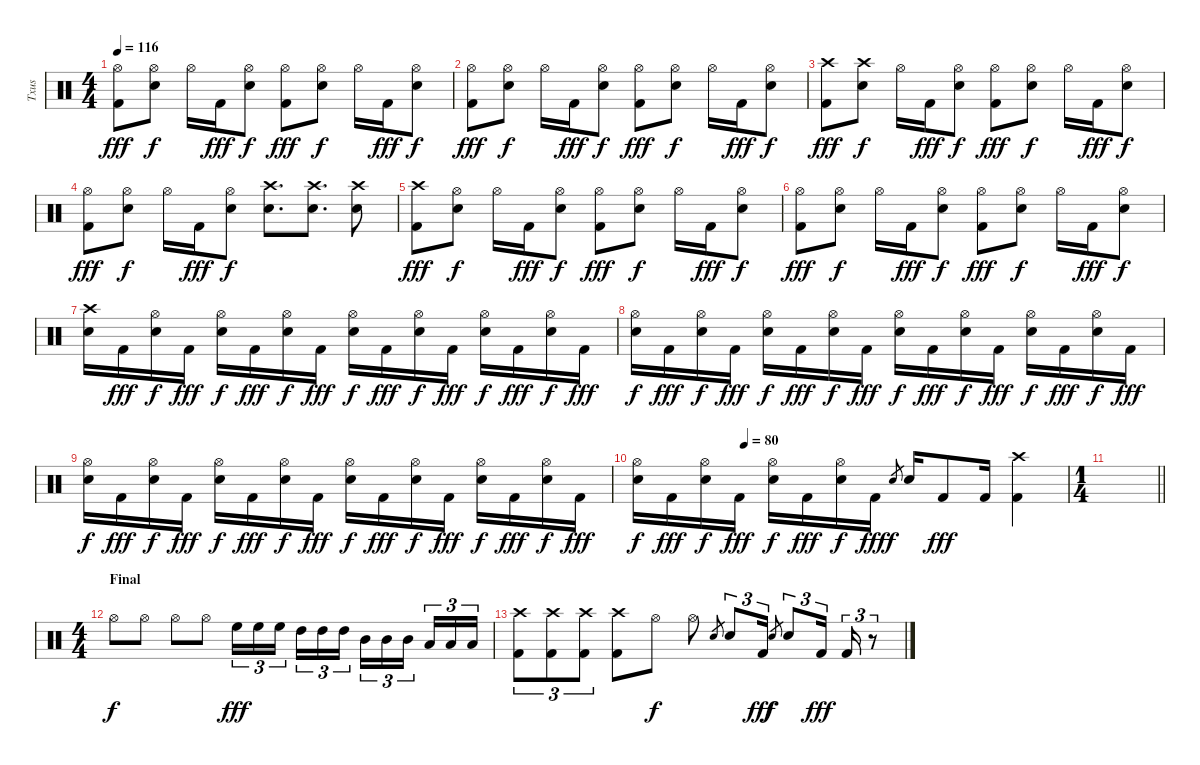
\track ("Txus" "Txus") {instrument percussion}
\staff {score}
\articulation defaults
\ts (4 4)
\tempo 116
\clef neutral
\ks c
("Kick (hit) 2" "Hi-Hat (open)").8{dy fff} ("Electric Snare (hit)" "Hi-Hat (open)").8{dy f} "Hi-Hat (open)".16 "Kick (hit) 2".16{dy fff} ("Electric Snare (hit)" "Hi-Hat (open)").8{dy f} ("Kick (hit) 2" "Hi-Hat (open)").8{dy fff} ("Electric Snare (hit)" "Hi-Hat (open)").8{dy f} "Hi-Hat (open)".16 "Kick (hit) 2".16{dy fff} ("Electric Snare (hit)" "Hi-Hat (open)").8{dy f} |
("Kick (hit) 2" "Hi-Hat (open)").8{dy fff} ("Electric Snare (hit)" "Hi-Hat (open)").8{dy f} "Hi-Hat (open)".16 "Kick (hit) 2".16{dy fff} ("Electric Snare (hit)" "Hi-Hat (open)").8{dy f} ("Kick (hit) 2" "Hi-Hat (open)").8{dy fff} ("Electric Snare (hit)" "Hi-Hat (open)").8{dy f} "Hi-Hat (open)".16 "Kick (hit) 2".16{dy fff} ("Electric Snare (hit)" "Hi-Hat (open)").8{dy f} |
("Kick (hit) 2" "Crash high (hit)").8{dy fff} ("Electric Snare (hit)" "Crash high (hit)").8{dy f} "Hi-Hat (open)".16 "Kick (hit) 2".16{dy fff} ("Electric Snare (hit)" "Hi-Hat (open)").8{dy f} ("Kick (hit) 2" "Hi-Hat (open)").8{dy fff} ("Electric Snare (hit)" "Hi-Hat (open)").8{dy f} "Hi-Hat (open)".16 "Kick (hit) 2".16{dy fff} ("Electric Snare (hit)" "Hi-Hat (open)").8{dy f} |
("Kick (hit) 2" "Hi-Hat (open)").8{dy fff} ("Electric Snare (hit)" "Hi-Hat (open)").8{dy f} "Hi-Hat (open)".16 "Kick (hit) 2".16{dy fff} ("Electric Snare (hit)" "Hi-Hat (open)").8{dy f} ("Electric Snare (hit)" "Crash high (hit)").8{d} ("Electric Snare (hit)" "Crash high (hit)").8{d} ("Electric Snare (hit)" "Crash high (hit)").8 |
("Kick (hit) 2" "Crash high (hit)").8{dy fff} ("Electric Snare (hit)" "Hi-Hat (open)").8{dy f} "Hi-Hat (open)".16 "Kick (hit) 2".16{dy fff} ("Electric Snare (hit)" "Hi-Hat (open)").8{dy f} ("Kick (hit) 2" "Hi-Hat (open)").8{dy fff} ("Electric Snare (hit)" "Hi-Hat (open)").8{dy f} "Hi-Hat (open)".16 "Kick (hit) 2".16{dy fff} ("Electric Snare (hit)" "Hi-Hat (open)").8{dy f} |
("Kick (hit) 2" "Hi-Hat (open)").8{dy fff} ("Electric Snare (hit)" "Hi-Hat (open)").8{dy f} "Hi-Hat (open)".16 "Kick (hit) 2".16{dy fff} ("Electric Snare (hit)" "Hi-Hat (open)").8{dy f} ("Kick (hit) 2" "Hi-Hat (open)").8{dy fff} ("Electric Snare (hit)" "Hi-Hat (open)").8{dy f} "Hi-Hat (open)".16 "Kick (hit) 2".16{dy fff} ("Electric Snare (hit)" "Hi-Hat (open)").8{dy f} |
("Electric Snare (hit)" "Crash high (hit)").16 "Kick (hit) 2".16{dy fff} ("Electric Snare (hit)" "Hi-Hat (open)").16{dy f} "Kick (hit) 2".16{dy fff} ("Electric Snare (hit)" "Hi-Hat (open)").16{dy f} "Kick (hit) 2".16{dy fff} ("Electric Snare (hit)" "Hi-Hat (open)").16{dy f} "Kick (hit) 2".16{dy fff} ("Electric Snare (hit)" "Hi-Hat (open)").16{dy f} "Kick (hit) 2".16{dy fff} ("Electric Snare (hit)" "Hi-Hat (open)").16{dy f} "Kick (hit) 2".16{dy fff} ("Electric Snare (hit)" "Hi-Hat (open)").16{dy f} "Kick (hit) 2".16{dy fff} ("Electric Snare (hit)" "Hi-Hat (open)").16{dy f} "Kick (hit) 2".16{dy fff} |
("Electric Snare (hit)" "Hi-Hat (open)").16{dy f} "Kick (hit) 2".16{dy fff} ("Electric Snare (hit)" "Hi-Hat (open)").16{dy f} "Kick (hit) 2".16{dy fff} ("Electric Snare (hit)" "Hi-Hat (open)").16{dy f} "Kick (hit) 2".16{dy fff} ("Electric Snare (hit)" "Hi-Hat (open)").16{dy f} "Kick (hit) 2".16{dy fff} ("Electric Snare (hit)" "Hi-Hat (open)").16{dy f} "Kick (hit) 2".16{dy fff} ("Electric Snare (hit)" "Hi-Hat (open)").16{dy f} "Kick (hit) 2".16{dy fff} ("Electric Snare (hit)" "Hi-Hat (open)").16{dy f} "Kick (hit) 2".16{dy fff} ("Electric Snare (hit)" "Hi-Hat (open)").16{dy f} "Kick (hit) 2".16{dy fff} |
("Electric Snare (hit)" "Hi-Hat (open)").16{dy f} "Kick (hit) 2".16{dy fff} ("Electric Snare (hit)" "Hi-Hat (open)").16{dy f} "Kick (hit) 2".16{dy fff} ("Electric Snare (hit)" "Hi-Hat (open)").16{dy f} "Kick (hit) 2".16{dy fff} ("Electric Snare (hit)" "Hi-Hat (open)").16{dy f} "Kick (hit) 2".16{dy fff} ("Electric Snare (hit)" "Hi-Hat (open)").16{dy f} "Kick (hit) 2".16{dy fff} ("Electric Snare (hit)" "Hi-Hat (open)").16{dy f} "Kick (hit) 2".16{dy fff} ("Electric Snare (hit)" "Hi-Hat (open)").16{dy f} "Kick (hit) 2".16{dy fff} ("Electric Snare (hit)" "Hi-Hat (open)").16{dy f} "Kick (hit) 2".16{dy fff} |
\tempo (80 0.25)
("Electric Snare (hit)" "Hi-Hat (open)").16{dy f} "Kick (hit) 2".16{dy fff} ("Electric Snare (hit)" "Hi-Hat (open)").16{dy f} "Kick (hit) 2".16{dy fff} ("Electric Snare (hit)" "Hi-Hat (open)").16{dy f} "Kick (hit) 2".16{dy fff} ("Electric Snare (hit)" "Hi-Hat (open)").16{dy f} "Kick (hit) 2".16{dy fff} "Electric Snare (hit)".8{gr dy f} "Electric Snare (hit)".16 "Kick (hit) 2".8{dy fff} "Kick (hit) 2".16 ("Kick (hit) 2" "Crash high (hit)").4 |
\ts (1 4)
\barLineRight lightlight
|
\ts (4 4)
\section ("" "Final")
"Hi-Hat (open)".8{dy f} "Hi-Hat (open)".8 "Hi-Hat (open)".8 "Hi-Hat (open)".8 "High Floor Tom (hit)".16{tu (3 2) dy fff} "High Floor Tom (hit)".16{tu (3 2)} "High Floor Tom (hit)".16{tu (3 2) beam splitsecondary} "High Tom (hit)".16{tu (3 2)} "High Tom (hit)".16{tu (3 2)} "High Tom (hit)".16{tu (3 2)} "Mid Tom (hit)".16{tu (3 2)} "Mid Tom (hit)".16{tu (3 2)} "Mid Tom (hit)".16{tu (3 2) beam splitsecondary} "Low Tom (hit)".16{tu (3 2)} "Low Tom (hit)".16{tu (3 2)} "Low Tom (hit)".16{tu (3 2)} |
("Kick (hit) 2" "Crash high (hit)").8{tu (3 2)} ("Kick (hit) 2" "Crash high (hit)").8{tu (3 2)} ("Kick (hit) 2" "Crash high (hit)").8{tu (3 2)} ("Kick (hit) 2" "Crash high (hit)").8 "Hi-Hat (open)".8{dy f} "Hi-Hat (open)".8 "Electric Snare (hit)".8{gr} "Electric Snare (hit)".8{tu (3 2)} "Kick (hit) 2".16{tu (3 2) dy fff} "Electric Snare (hit)".8{gr dy f} "Electric Snare (hit)".8{tu (3 2)} "Kick (hit) 2".16{tu (3 2) dy fff} "Kick (hit) 2".16{tu (3 2)} r.8{tu (3 2)}
